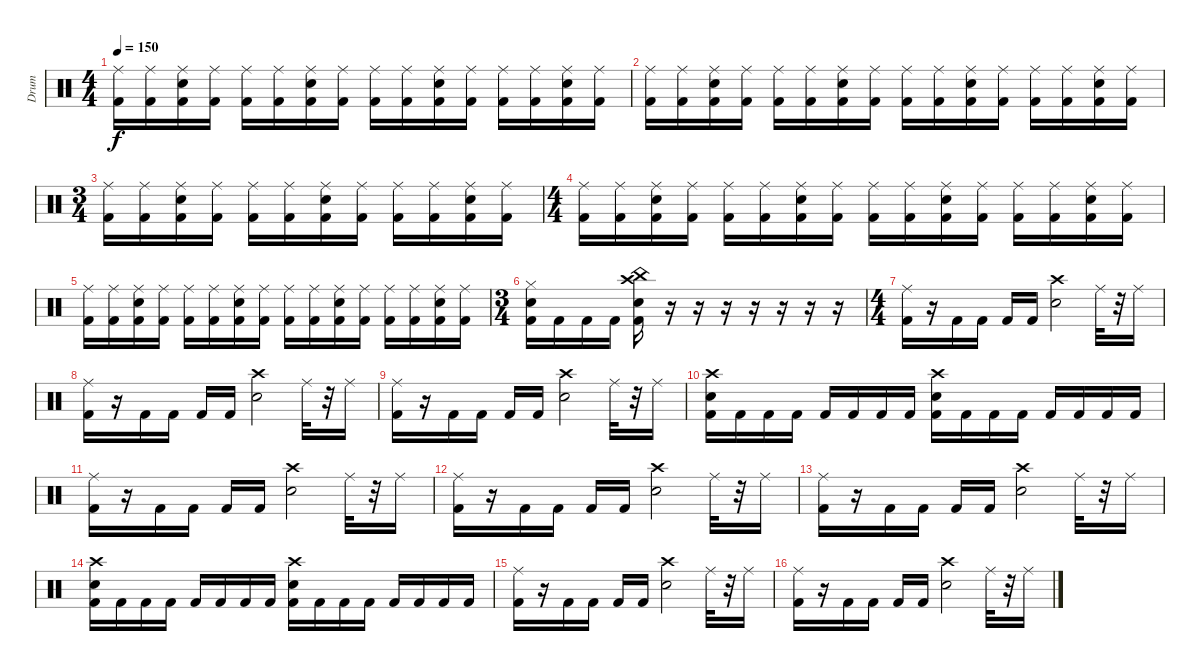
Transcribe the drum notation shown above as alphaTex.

\track ("Drum" "Drum") {instrument percussion}
\staff {score}
\articulation defaults
\ts (4 4)
\tempo 150
\clef neutral
\ks c
("Kick (hit) 2" "Ride (middle)").16{dy f} ("Kick (hit) 2" "Ride (middle)").16 ("Kick (hit) 2" "Ride (middle)" "Electric Snare (hit)").16 ("Kick (hit) 2" "Ride (middle)").16 ("Kick (hit) 2" "Ride (middle)").16 ("Kick (hit) 2" "Ride (middle)").16 ("Kick (hit) 2" "Ride (middle)" "Electric Snare (hit)").16 ("Kick (hit) 2" "Ride (middle)").16 ("Kick (hit) 2" "Ride (middle)").16 ("Kick (hit) 2" "Ride (middle)").16 ("Kick (hit) 2" "Ride (middle)" "Electric Snare (hit)").16 ("Kick (hit) 2" "Ride (middle)").16 ("Kick (hit) 2" "Ride (middle)").16 ("Kick (hit) 2" "Ride (middle)").16 ("Kick (hit) 2" "Ride (middle)" "Electric Snare (hit)").16 ("Kick (hit) 2" "Ride (middle)").16 |
("Kick (hit) 2" "Ride (middle)").16 ("Kick (hit) 2" "Ride (middle)").16 ("Kick (hit) 2" "Ride (middle)" "Electric Snare (hit)").16 ("Kick (hit) 2" "Ride (middle)").16 ("Kick (hit) 2" "Ride (middle)").16 ("Kick (hit) 2" "Ride (middle)").16 ("Kick (hit) 2" "Ride (middle)" "Electric Snare (hit)").16 ("Kick (hit) 2" "Ride (middle)").16 ("Kick (hit) 2" "Ride (middle)").16 ("Kick (hit) 2" "Ride (middle)").16 ("Kick (hit) 2" "Ride (middle)" "Electric Snare (hit)").16 ("Kick (hit) 2" "Ride (middle)").16 ("Kick (hit) 2" "Ride (middle)").16 ("Kick (hit) 2" "Ride (middle)").16 ("Kick (hit) 2" "Ride (middle)" "Electric Snare (hit)").16 ("Kick (hit) 2" "Ride (middle)").16 |
\ts (3 4)
("Kick (hit) 2" "Ride (middle)").16 ("Kick (hit) 2" "Ride (middle)").16 ("Kick (hit) 2" "Ride (middle)" "Electric Snare (hit)").16 ("Kick (hit) 2" "Ride (middle)").16 ("Kick (hit) 2" "Ride (middle)").16 ("Kick (hit) 2" "Ride (middle)").16 ("Kick (hit) 2" "Ride (middle)" "Electric Snare (hit)").16 ("Kick (hit) 2" "Ride (middle)").16 ("Kick (hit) 2" "Ride (middle)").16 ("Kick (hit) 2" "Ride (middle)").16 ("Kick (hit) 2" "Ride (middle)" "Electric Snare (hit)").16 ("Kick (hit) 2" "Ride (middle)").16 |
\ts (4 4)
("Kick (hit) 2" "Ride (middle)").16 ("Kick (hit) 2" "Ride (middle)").16 ("Kick (hit) 2" "Ride (middle)" "Electric Snare (hit)").16 ("Kick (hit) 2" "Ride (middle)").16 ("Kick (hit) 2" "Ride (middle)").16 ("Kick (hit) 2" "Ride (middle)").16 ("Kick (hit) 2" "Ride (middle)" "Electric Snare (hit)").16 ("Kick (hit) 2" "Ride (middle)").16 ("Kick (hit) 2" "Ride (middle)").16 ("Kick (hit) 2" "Ride (middle)").16 ("Kick (hit) 2" "Ride (middle)" "Electric Snare (hit)").16 ("Kick (hit) 2" "Ride (middle)").16 ("Kick (hit) 2" "Ride (middle)").16 ("Kick (hit) 2" "Ride (middle)").16 ("Kick (hit) 2" "Ride (middle)" "Electric Snare (hit)").16 ("Kick (hit) 2" "Ride (middle)").16 |
("Kick (hit) 2" "Ride (middle)").16 ("Kick (hit) 2" "Ride (middle)").16 ("Kick (hit) 2" "Ride (middle)" "Electric Snare (hit)").16 ("Kick (hit) 2" "Ride (middle)").16 ("Kick (hit) 2" "Ride (middle)").16 ("Kick (hit) 2" "Ride (middle)").16 ("Kick (hit) 2" "Ride (middle)" "Electric Snare (hit)").16 ("Kick (hit) 2" "Ride (middle)").16 ("Kick (hit) 2" "Ride (middle)").16 ("Kick (hit) 2" "Ride (middle)").16 ("Kick (hit) 2" "Ride (middle)" "Electric Snare (hit)").16 ("Kick (hit) 2" "Ride (middle)").16 ("Kick (hit) 2" "Ride (middle)").16 ("Kick (hit) 2" "Ride (middle)").16 ("Kick (hit) 2" "Ride (middle)" "Electric Snare (hit)").16 ("Kick (hit) 2" "Ride (middle)").16 |
\ts (3 4)
("Kick (hit) 2" "Hi-Hat (closed)" "Electric Snare (hit)").16 "Kick (hit) 2".16 "Kick (hit) 2".16 "Kick (hit) 2".16 ("Kick (hit) 2" "China (hit)" "Crash high (hit)" "Electric Snare (hit)").16 r.16 r.16 r.16 r.16 r.16 r.16 r.16 |
\ts (4 4)
("Kick (hit) 2" "Ride (middle)").16 r.16 "Kick (hit) 2".16 "Kick (hit) 2".16 "Kick (hit) 2".16 "Kick (hit) 2".16 ("Crash high (hit)" "Electric Snare (hit)").2 "Ride (middle)".32 r.32 "Ride (middle)".16 |
("Kick (hit) 2" "Ride (middle)").16 r.16 "Kick (hit) 2".16 "Kick (hit) 2".16 "Kick (hit) 2".16 "Kick (hit) 2".16 ("Crash high (hit)" "Electric Snare (hit)").2 "Ride (middle)".32 r.32 "Ride (middle)".16 |
("Kick (hit) 2" "Ride (middle)").16 r.16 "Kick (hit) 2".16 "Kick (hit) 2".16 "Kick (hit) 2".16 "Kick (hit) 2".16 ("Crash high (hit)" "Electric Snare (hit)").2 "Ride (middle)".32 r.32 "Ride (middle)".16 |
("Kick (hit) 2" "Crash high (hit)" "Electric Snare (hit)").16 "Kick (hit) 2".16 "Kick (hit) 2".16 "Kick (hit) 2".16 "Kick (hit) 2".16 "Kick (hit) 2".16 "Kick (hit) 2".16 "Kick (hit) 2".16 ("Kick (hit) 2" "Crash high (hit)" "Electric Snare (hit)").16 "Kick (hit) 2".16 "Kick (hit) 2".16 "Kick (hit) 2".16 "Kick (hit) 2".16 "Kick (hit) 2".16 "Kick (hit) 2".16 "Kick (hit) 2".16 |
("Kick (hit) 2" "Ride (middle)").16 r.16 "Kick (hit) 2".16 "Kick (hit) 2".16 "Kick (hit) 2".16 "Kick (hit) 2".16 ("Crash high (hit)" "Electric Snare (hit)").2 "Ride (middle)".32 r.32 "Ride (middle)".16 |
("Kick (hit) 2" "Ride (middle)").16 r.16 "Kick (hit) 2".16 "Kick (hit) 2".16 "Kick (hit) 2".16 "Kick (hit) 2".16 ("Crash high (hit)" "Electric Snare (hit)").2 "Ride (middle)".32 r.32 "Ride (middle)".16 |
("Kick (hit) 2" "Ride (middle)").16 r.16 "Kick (hit) 2".16 "Kick (hit) 2".16 "Kick (hit) 2".16 "Kick (hit) 2".16 ("Crash high (hit)" "Electric Snare (hit)").2 "Ride (middle)".32 r.32 "Ride (middle)".16 |
("Kick (hit) 2" "Crash high (hit)" "Electric Snare (hit)").16 "Kick (hit) 2".16 "Kick (hit) 2".16 "Kick (hit) 2".16 "Kick (hit) 2".16 "Kick (hit) 2".16 "Kick (hit) 2".16 "Kick (hit) 2".16 ("Kick (hit) 2" "Crash high (hit)" "Electric Snare (hit)").16 "Kick (hit) 2".16 "Kick (hit) 2".16 "Kick (hit) 2".16 "Kick (hit) 2".16 "Kick (hit) 2".16 "Kick (hit) 2".16 "Kick (hit) 2".16 |
("Kick (hit) 2" "Ride (middle)").16 r.16 "Kick (hit) 2".16 "Kick (hit) 2".16 "Kick (hit) 2".16 "Kick (hit) 2".16 ("Crash high (hit)" "Electric Snare (hit)").2 "Ride (middle)".32 r.32 "Ride (middle)".16 |
("Kick (hit) 2" "Ride (middle)").16 r.16 "Kick (hit) 2".16 "Kick (hit) 2".16 "Kick (hit) 2".16 "Kick (hit) 2".16 ("Crash high (hit)" "Electric Snare (hit)").2 "Ride (middle)".32 r.32 "Ride (middle)".16
